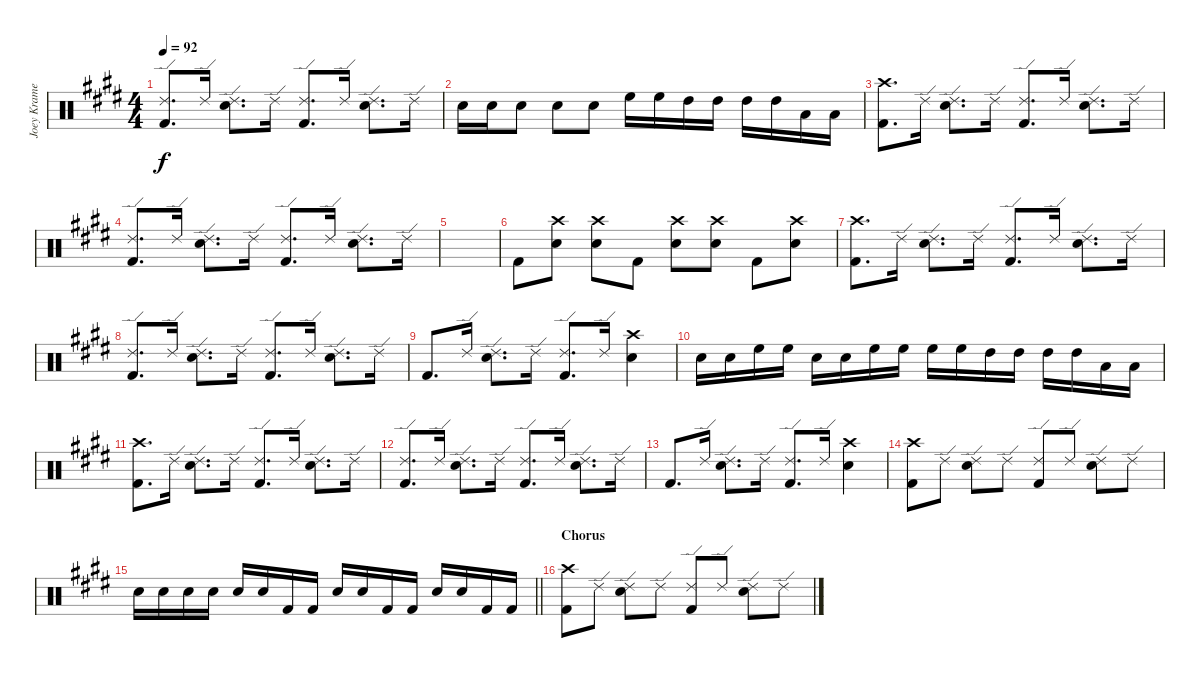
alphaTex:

\track ("Joey Kramer" "Joey Krame") {instrument percussion}
\staff {score}
\articulation defaults
\ts (4 4)
\tempo 92
\clef neutral
\ks e
("Ride (edge) 2" "Kick (hit) 2").8{d dy f} "Ride (edge) 2".16 ("Ride (edge) 2" "Electric Snare (hit)").8{d} "Ride (edge) 2".16 ("Ride (edge) 2" "Kick (hit) 2").8{d} "Ride (edge) 2".16 ("Ride (edge) 2" "Electric Snare (hit)").8{d} "Ride (edge) 2".16 |
"Electric Snare (hit)".16 "Electric Snare (hit)".16 "Electric Snare (hit)".8 "Electric Snare (hit)".8 "Electric Snare (hit)".8 "High Floor Tom (hit)".16 "High Floor Tom (hit)".16 "High Tom (hit)".16 "High Tom (hit)".16 "High Tom (hit)".16 "High Tom (hit)".16 "Low Tom (hit)".16 "Low Tom (hit)".16 |
("Crash high (hit)" "Kick (hit) 2").8{d} "Ride (edge) 2".16 ("Ride (edge) 2" "Electric Snare (hit)").8{d} "Ride (edge) 2".16 ("Ride (edge) 2" "Kick (hit) 2").8{d} "Ride (edge) 2".16 ("Ride (edge) 2" "Electric Snare (hit)").8{d} "Ride (edge) 2".16 |
("Ride (edge) 2" "Kick (hit) 2").8{d} "Ride (edge) 2".16 ("Ride (edge) 2" "Electric Snare (hit)").8{d} "Ride (edge) 2".16 ("Ride (edge) 2" "Kick (hit) 2").8{d} "Ride (edge) 2".16 ("Ride (edge) 2" "Electric Snare (hit)").8{d} "Ride (edge) 2".16 |
|
"Kick (hit) 2".8 ("Crash high (hit)" "Electric Snare (hit)").8 ("Crash high (hit)" "Electric Snare (hit)").8 "Kick (hit) 2".8 ("Crash high (hit)" "Electric Snare (hit)").8 ("Crash high (hit)" "Electric Snare (hit)").8 "Kick (hit) 2".8 ("Crash high (hit)" "Electric Snare (hit)").8 |
("Crash high (hit)" "Kick (hit) 2").8{d} "Ride (edge) 2".16 ("Ride (edge) 2" "Electric Snare (hit)").8{d} "Ride (edge) 2".16 ("Ride (edge) 2" "Kick (hit) 2").8{d} "Ride (edge) 2".16 ("Ride (edge) 2" "Electric Snare (hit)").8{d} "Ride (edge) 2".16 |
("Ride (edge) 2" "Kick (hit) 2").8{d} "Ride (edge) 2".16 ("Ride (edge) 2" "Electric Snare (hit)").8{d} "Ride (edge) 2".16 ("Ride (edge) 2" "Kick (hit) 2").8{d} "Ride (edge) 2".16 ("Ride (edge) 2" "Electric Snare (hit)").8{d} "Ride (edge) 2".16 |
"Kick (hit) 2".8{d} "Ride (edge) 2".16 ("Ride (edge) 2" "Electric Snare (hit)").8{d} "Ride (edge) 2".16 ("Ride (edge) 2" "Kick (hit) 2").8{d} "Ride (edge) 2".16 ("Crash high (hit)" "Electric Snare (hit)").4 |
"Electric Snare (hit)".16 "Electric Snare (hit)".16 "High Floor Tom (hit)".16 "High Floor Tom (hit)".16 "Electric Snare (hit)".16 "Electric Snare (hit)".16 "High Floor Tom (hit)".16 "High Floor Tom (hit)".16 "High Floor Tom (hit)".16 "High Floor Tom (hit)".16 "High Tom (hit)".16 "High Tom (hit)".16 "High Tom (hit)".16 "High Tom (hit)".16 "Low Tom (hit)".16 "Low Tom (hit)".16 |
("Crash high (hit)" "Kick (hit) 2").8{d} "Ride (edge) 2".16 ("Ride (edge) 2" "Electric Snare (hit)").8{d} "Ride (edge) 2".16 ("Ride (edge) 2" "Kick (hit) 2").8{d} "Ride (edge) 2".16 ("Ride (edge) 2" "Electric Snare (hit)").8{d} "Ride (edge) 2".16 |
("Ride (edge) 2" "Kick (hit) 2").8{d} "Ride (edge) 2".16 ("Ride (edge) 2" "Electric Snare (hit)").8{d} "Ride (edge) 2".16 ("Ride (edge) 2" "Kick (hit) 2").8{d} "Ride (edge) 2".16 ("Ride (edge) 2" "Electric Snare (hit)").8{d} "Ride (edge) 2".16 |
"Kick (hit) 2".8{d} "Ride (edge) 2".16 ("Ride (edge) 2" "Electric Snare (hit)").8{d} "Ride (edge) 2".16 ("Ride (edge) 2" "Kick (hit) 2").8{d} "Ride (edge) 2".16 ("Crash high (hit)" "Electric Snare (hit)").4 |
("Crash high (hit)" "Kick (hit) 2").8 "Ride (edge) 2".8 ("Ride (edge) 2" "Electric Snare (hit)").8 "Ride (edge) 2".8 ("Ride (edge) 2" "Kick (hit) 2").8 "Ride (edge) 2".8 ("Ride (edge) 2" "Electric Snare (hit)").8 "Ride (edge) 2".8 |
\barLineRight lightlight "Electric Snare (hit)".16 "Electric Snare (hit)".16 "Electric Snare (hit)".16 "Electric Snare (hit)".16 "Electric Snare (hit)".16 "Electric Snare (hit)".16 "Kick (hit) 2".16 "Kick (hit) 2".16 "Electric Snare (hit)".16 "Electric Snare (hit)".16 "Kick (hit) 2".16 "Kick (hit) 2".16 "Electric Snare (hit)".16 "Electric Snare (hit)".16 "Kick (hit) 2".16 "Kick (hit) 2".16
|
\section ("" "Chorus")
("Crash high (hit)" "Kick (hit) 2").8 "Ride (edge) 2".8 ("Ride (edge) 2" "Electric Snare (hit)").8 "Ride (edge) 2".8 ("Ride (edge) 2" "Kick (hit) 2").8 "Ride (edge) 2".8 ("Ride (edge) 2" "Electric Snare (hit)").8 "Ride (edge) 2".8
